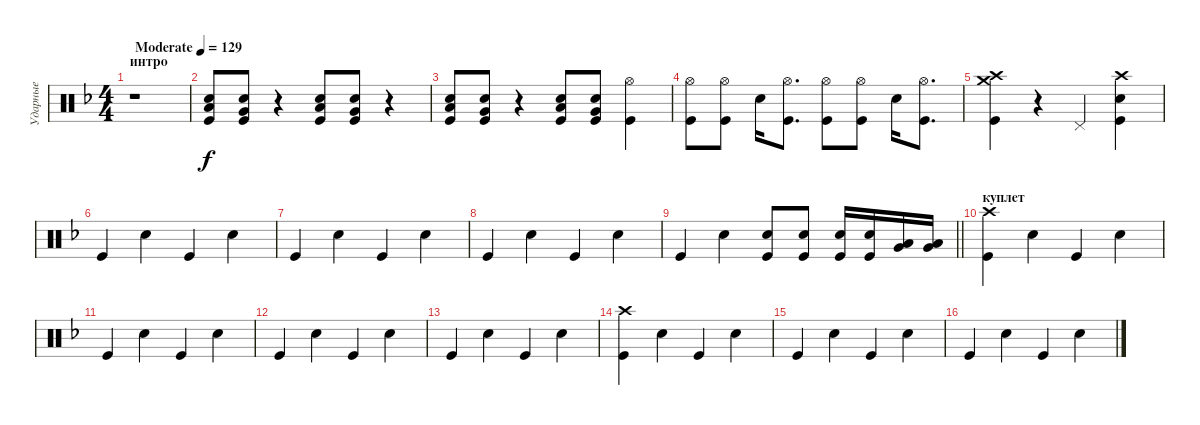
\track ("Ударные" "Ударные") {instrument percussion}
\staff {score}
\articulation defaults
\ts (4 4)
\section ("" "интро")
\tempo (129 "Moderate")
\clef neutral
\ks dminor
r.1{dy f} |
("Snare (hit) 2" "Low Floor Tom (hit)" "Kick (hit)").8 ("Snare (hit) 2" "Very Low Tom (hit)" "Kick (hit)").8 r.4 ("Snare (hit) 2" "Low Floor Tom (hit)" "Kick (hit)").8 ("Snare (hit) 2" "Very Low Tom (hit)" "Kick (hit)").8 r.4 |
("Snare (hit) 2" "Low Floor Tom (hit)" "Kick (hit)").8 ("Snare (hit) 2" "Very Low Tom (hit)" "Kick (hit)").8 r.4 ("Snare (hit) 2" "Low Floor Tom (hit)" "Kick (hit)").8 ("Snare (hit) 2" "Very Low Tom (hit)" "Kick (hit)").8 ("Hi-Hat (open)" "Kick (hit)").4 |
("Kick (hit)" "Hi-Hat (open)").8 ("Kick (hit)" "Hi-Hat (open)").8 "Snare (hit) 2".16 ("Kick (hit)" "Hi-Hat (open)").8{d} ("Kick (hit)" "Hi-Hat (open)").8 ("Kick (hit)" "Hi-Hat (open)").8 "Snare (hit) 2".16 ("Kick (hit)" "Hi-Hat (open)").8{d} |
("Crash high (hit)" "Crash medium (hit)" "Kick (hit)").4 r.4 "Pedal Hi-Hat (hit)".4 ("Crash high (hit)" "Snare (hit) 2" "Kick (hit)").4 |
"Kick (hit)".4 "Snare (hit) 2".4 "Kick (hit)".4 "Snare (hit) 2".4 |
"Kick (hit)".4 "Snare (hit) 2".4 "Kick (hit)".4 "Snare (hit) 2".4 |
"Kick (hit)".4 "Snare (hit) 2".4 "Kick (hit)".4 "Snare (hit) 2".4 |
\barLineRight lightlight "Kick (hit)".4 "Snare (hit) 2".4
("Snare (hit) 2" "Kick (hit)").8 ("Snare (hit) 2" "Kick (hit)").8 ("Snare (hit) 2" "Kick (hit)").16 ("Snare (hit) 2" "Kick (hit)").16 ("Low Floor Tom (hit)" "Very Low Tom (hit)").16 ("Very Low Tom (hit)" "Low Tom (hit)").16 |
\section ("" "куплет")
("Crash high (hit)" "Kick (hit)").4 "Snare (hit) 2".4 "Kick (hit)".4 "Snare (hit) 2".4 |
"Kick (hit)".4 "Snare (hit) 2".4 "Kick (hit)".4 "Snare (hit) 2".4 |
"Kick (hit)".4 "Snare (hit) 2".4 "Kick (hit)".4 "Snare (hit) 2".4 |
"Kick (hit)".4 "Snare (hit) 2".4 "Kick (hit)".4 "Snare (hit) 2".4 |
("Crash high (hit)" "Kick (hit)").4 "Snare (hit) 2".4 "Kick (hit)".4 "Snare (hit) 2".4 |
"Kick (hit)".4 "Snare (hit) 2".4 "Kick (hit)".4 "Snare (hit) 2".4 |
"Kick (hit)".4 "Snare (hit) 2".4 "Kick (hit)".4 "Snare (hit) 2".4
